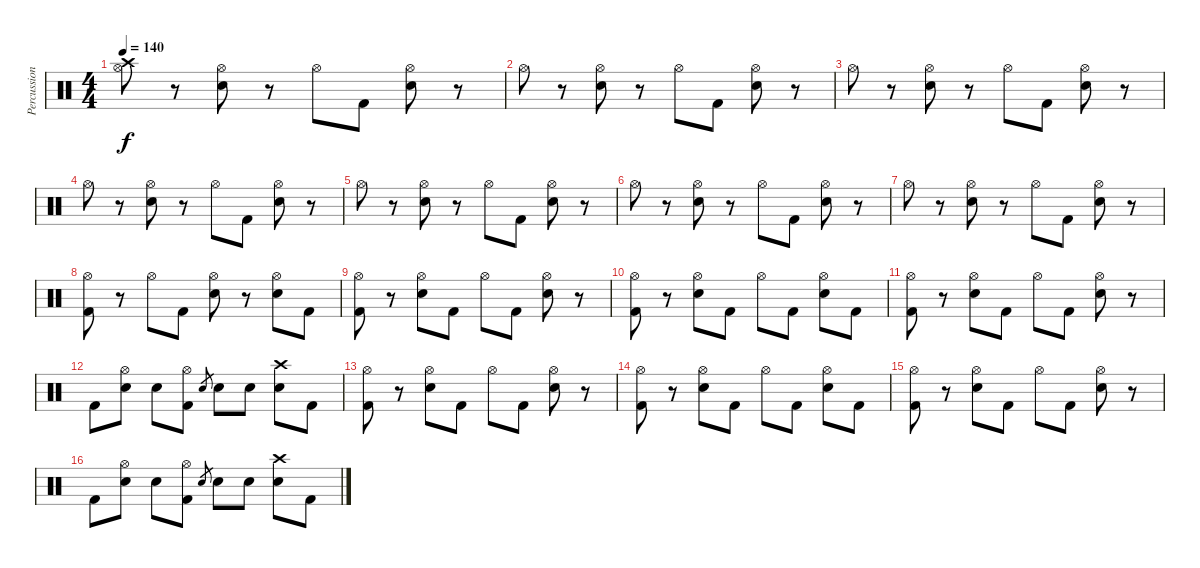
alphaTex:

\track ("Percussion" "Percussion") {instrument percussion}
\staff {score}
\articulation defaults
\ts (4 4)
\tempo 140
\clef neutral
\ks c
("Hi-Hat (open)" "Crash high (hit)").8{dy f} r.8 ("Hi-Hat (open)" "Electric Snare (hit)").8 r.8 "Hi-Hat (open)".8 "Kick (hit) 2".8 ("Hi-Hat (open)" "Electric Snare (hit)").8 r.8 |
"Hi-Hat (open)".8 r.8 ("Hi-Hat (open)" "Electric Snare (hit)").8 r.8 "Hi-Hat (open)".8 "Kick (hit) 2".8 ("Hi-Hat (open)" "Electric Snare (hit)").8 r.8 |
"Hi-Hat (open)".8 r.8 ("Hi-Hat (open)" "Electric Snare (hit)").8 r.8 "Hi-Hat (open)".8 "Kick (hit) 2".8 ("Hi-Hat (open)" "Electric Snare (hit)").8 r.8 |
"Hi-Hat (open)".8 r.8 ("Hi-Hat (open)" "Electric Snare (hit)").8 r.8 "Hi-Hat (open)".8 "Kick (hit) 2".8 ("Hi-Hat (open)" "Electric Snare (hit)").8 r.8 |
"Hi-Hat (open)".8 r.8 ("Hi-Hat (open)" "Electric Snare (hit)").8 r.8 "Hi-Hat (open)".8 "Kick (hit) 2".8 ("Hi-Hat (open)" "Electric Snare (hit)").8 r.8 |
"Hi-Hat (open)".8 r.8 ("Hi-Hat (open)" "Electric Snare (hit)").8 r.8 "Hi-Hat (open)".8 "Kick (hit) 2".8 ("Hi-Hat (open)" "Electric Snare (hit)").8 r.8 |
"Hi-Hat (open)".8 r.8 ("Hi-Hat (open)" "Electric Snare (hit)").8 r.8 "Hi-Hat (open)".8 "Kick (hit) 2".8 ("Hi-Hat (open)" "Electric Snare (hit)").8 r.8 |
("Hi-Hat (open)" "Kick (hit) 2").8 r.8 "Hi-Hat (open)".8 "Kick (hit) 2".8 ("Hi-Hat (open)" "Electric Snare (hit)").8 r.8 ("Hi-Hat (open)" "Electric Snare (hit)").8 "Kick (hit) 2".8 |
("Hi-Hat (open)" "Kick (hit) 2").8 r.8 ("Hi-Hat (open)" "Electric Snare (hit)").8 "Kick (hit) 2".8 "Hi-Hat (open)".8 "Kick (hit) 2".8 ("Hi-Hat (open)" "Electric Snare (hit)").8 r.8 |
("Hi-Hat (open)" "Kick (hit) 2").8 r.8 ("Hi-Hat (open)" "Electric Snare (hit)").8 "Kick (hit) 2".8 "Hi-Hat (open)".8 "Kick (hit) 2".8 ("Hi-Hat (open)" "Electric Snare (hit)").8 "Kick (hit) 2".8 |
("Hi-Hat (open)" "Kick (hit) 2").8 r.8 ("Hi-Hat (open)" "Electric Snare (hit)").8 "Kick (hit) 2".8 "Hi-Hat (open)".8 "Kick (hit) 2".8 ("Hi-Hat (open)" "Electric Snare (hit)").8 r.8 |
"Kick (hit) 2".8 ("Hi-Hat (open)" "Electric Snare (hit)").8 "Electric Snare (hit)".8 ("Hi-Hat (open)" "Kick (hit) 2").8 "Electric Snare (hit)".8{gr} "Electric Snare (hit)".8 "Electric Snare (hit)".8 ("Crash high (hit)" "Electric Snare (hit)").8 "Kick (hit) 2".8 |
("Hi-Hat (open)" "Kick (hit) 2").8 r.8 ("Hi-Hat (open)" "Electric Snare (hit)").8 "Kick (hit) 2".8 "Hi-Hat (open)".8 "Kick (hit) 2".8 ("Hi-Hat (open)" "Electric Snare (hit)").8 r.8 |
("Hi-Hat (open)" "Kick (hit) 2").8 r.8 ("Hi-Hat (open)" "Electric Snare (hit)").8 "Kick (hit) 2".8 "Hi-Hat (open)".8 "Kick (hit) 2".8 ("Hi-Hat (open)" "Electric Snare (hit)").8 "Kick (hit) 2".8 |
("Hi-Hat (open)" "Kick (hit) 2").8 r.8 ("Hi-Hat (open)" "Electric Snare (hit)").8 "Kick (hit) 2".8 "Hi-Hat (open)".8 "Kick (hit) 2".8 ("Hi-Hat (open)" "Electric Snare (hit)").8 r.8 |
"Kick (hit) 2".8 ("Hi-Hat (open)" "Electric Snare (hit)").8 "Electric Snare (hit)".8 ("Hi-Hat (open)" "Kick (hit) 2").8 "Electric Snare (hit)".8{gr} "Electric Snare (hit)".8 "Electric Snare (hit)".8 ("Crash high (hit)" "Electric Snare (hit)").8 "Kick (hit) 2".8
